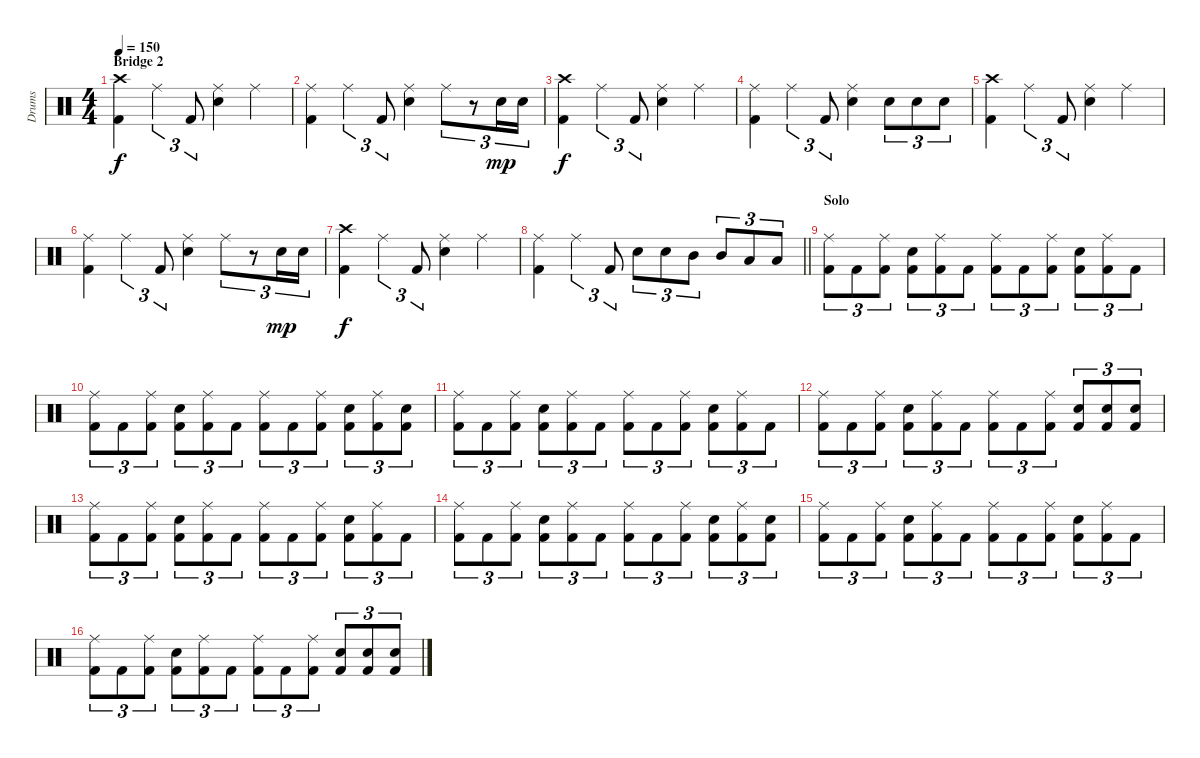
\track ("Drums" "Drums") {instrument percussion}
\staff {score}
\articulation defaults
\ts (4 4)
\section ("" "Bridge 2")
\tempo 150
\clef neutral
\ks c
("Crash high (hit)" "Kick (hit) 2").4{dy f} "Ride (middle)".4{tu (3 2)} "Kick (hit) 2".8{tu (3 2)} ("Ride (middle)" "Electric Snare (hit)").4 "Ride (middle)".4 |
("Ride (middle)" "Kick (hit) 2").4 "Ride (middle)".4{tu (3 2)} "Kick (hit) 2".8{tu (3 2)} ("Ride (middle)" "Electric Snare (hit)").4 "Ride (middle)".8{tu (3 2)} r.8{tu (3 2)} "Electric Snare (hit)".16{tu (3 2) dy mp} "Electric Snare (hit)".16{tu (3 2)} |
("Crash high (hit)" "Kick (hit) 2").4{dy f} "Ride (middle)".4{tu (3 2)} "Kick (hit) 2".8{tu (3 2)} ("Ride (middle)" "Electric Snare (hit)").4 "Ride (middle)".4 |
("Ride (middle)" "Kick (hit) 2").4 "Ride (middle)".4{tu (3 2)} "Kick (hit) 2".8{tu (3 2)} ("Ride (middle)" "Electric Snare (hit)").4 "Electric Snare (hit)".8{tu (3 2)} "Electric Snare (hit)".8{tu (3 2)} "Electric Snare (hit)".8{tu (3 2)} |
("Crash high (hit)" "Kick (hit) 2").4 "Ride (middle)".4{tu (3 2)} "Kick (hit) 2".8{tu (3 2)} ("Ride (middle)" "Electric Snare (hit)").4 "Ride (middle)".4 |
("Ride (middle)" "Kick (hit) 2").4 "Ride (middle)".4{tu (3 2)} "Kick (hit) 2".8{tu (3 2)} ("Ride (middle)" "Electric Snare (hit)").4 "Ride (middle)".8{tu (3 2)} r.8{tu (3 2)} "Electric Snare (hit)".16{tu (3 2) dy mp} "Electric Snare (hit)".16{tu (3 2)} |
("Crash high (hit)" "Kick (hit) 2").4{dy f} "Ride (middle)".4{tu (3 2)} "Kick (hit) 2".8{tu (3 2)} ("Ride (middle)" "Electric Snare (hit)").4 "Ride (middle)".4 |
\barLineRight lightlight
("Ride (middle)" "Kick (hit) 2").4 "Ride (middle)".4{tu (3 2)} "Kick (hit) 2".8{tu (3 2)} "Electric Snare (hit)".8{tu (3 2)} "Electric Snare (hit)".8{tu (3 2)} "Mid Tom (hit)".8{tu (3 2)} "Mid Tom (hit)".8{tu (3 2)} "Low Tom (hit)".8{tu (3 2)} "Low Tom (hit)".8{tu (3 2)} |
\section ("" "Solo")
("Ride (middle)" "Kick (hit) 2").8{tu (3 2)} "Kick (hit) 2".8{tu (3 2)} ("Ride (middle)" "Kick (hit) 2").8{tu (3 2)} ("Electric Snare (hit)" "Kick (hit) 2").8{tu (3 2)} ("Ride (middle)" "Kick (hit) 2").8{tu (3 2)} "Kick (hit) 2".8{tu (3 2)} ("Ride (middle)" "Kick (hit) 2").8{tu (3 2)} "Kick (hit) 2".8{tu (3 2)} ("Ride (middle)" "Kick (hit) 2").8{tu (3 2)} ("Electric Snare (hit)" "Kick (hit) 2").8{tu (3 2)} ("Ride (middle)" "Kick (hit) 2").8{tu (3 2)} "Kick (hit) 2".8{tu (3 2)} |
("Ride (middle)" "Kick (hit) 2").8{tu (3 2)} "Kick (hit) 2".8{tu (3 2)} ("Ride (middle)" "Kick (hit) 2").8{tu (3 2)} ("Electric Snare (hit)" "Kick (hit) 2").8{tu (3 2)} ("Ride (middle)" "Kick (hit) 2").8{tu (3 2)} "Kick (hit) 2".8{tu (3 2)} ("Ride (middle)" "Kick (hit) 2").8{tu (3 2)} "Kick (hit) 2".8{tu (3 2)} ("Ride (middle)" "Kick (hit) 2").8{tu (3 2)} ("Electric Snare (hit)" "Kick (hit) 2").8{tu (3 2)} ("Ride (middle)" "Kick (hit) 2").8{tu (3 2)} ("Electric Snare (hit)" "Kick (hit) 2").8{tu (3 2)} |
("Ride (middle)" "Kick (hit) 2").8{tu (3 2)} "Kick (hit) 2".8{tu (3 2)} ("Ride (middle)" "Kick (hit) 2").8{tu (3 2)} ("Electric Snare (hit)" "Kick (hit) 2").8{tu (3 2)} ("Ride (middle)" "Kick (hit) 2").8{tu (3 2)} "Kick (hit) 2".8{tu (3 2)} ("Ride (middle)" "Kick (hit) 2").8{tu (3 2)} "Kick (hit) 2".8{tu (3 2)} ("Ride (middle)" "Kick (hit) 2").8{tu (3 2)} ("Electric Snare (hit)" "Kick (hit) 2").8{tu (3 2)} ("Ride (middle)" "Kick (hit) 2").8{tu (3 2)} "Kick (hit) 2".8{tu (3 2)} |
("Ride (middle)" "Kick (hit) 2").8{tu (3 2)} "Kick (hit) 2".8{tu (3 2)} ("Ride (middle)" "Kick (hit) 2").8{tu (3 2)} ("Electric Snare (hit)" "Kick (hit) 2").8{tu (3 2)} ("Ride (middle)" "Kick (hit) 2").8{tu (3 2)} "Kick (hit) 2".8{tu (3 2)} ("Ride (middle)" "Kick (hit) 2").8{tu (3 2)} "Kick (hit) 2".8{tu (3 2)} ("Ride (middle)" "Kick (hit) 2").8{tu (3 2)} ("Electric Snare (hit)" "Kick (hit) 2").8{tu (3 2)} ("Electric Snare (hit)" "Kick (hit) 2").8{tu (3 2)} ("Electric Snare (hit)" "Kick (hit) 2").8{tu (3 2)} |
("Ride (middle)" "Kick (hit) 2").8{tu (3 2)} "Kick (hit) 2".8{tu (3 2)} ("Ride (middle)" "Kick (hit) 2").8{tu (3 2)} ("Electric Snare (hit)" "Kick (hit) 2").8{tu (3 2)} ("Ride (middle)" "Kick (hit) 2").8{tu (3 2)} "Kick (hit) 2".8{tu (3 2)} ("Ride (middle)" "Kick (hit) 2").8{tu (3 2)} "Kick (hit) 2".8{tu (3 2)} ("Ride (middle)" "Kick (hit) 2").8{tu (3 2)} ("Electric Snare (hit)" "Kick (hit) 2").8{tu (3 2)} ("Ride (middle)" "Kick (hit) 2").8{tu (3 2)} "Kick (hit) 2".8{tu (3 2)} |
("Ride (middle)" "Kick (hit) 2").8{tu (3 2)} "Kick (hit) 2".8{tu (3 2)} ("Ride (middle)" "Kick (hit) 2").8{tu (3 2)} ("Electric Snare (hit)" "Kick (hit) 2").8{tu (3 2)} ("Ride (middle)" "Kick (hit) 2").8{tu (3 2)} "Kick (hit) 2".8{tu (3 2)} ("Ride (middle)" "Kick (hit) 2").8{tu (3 2)} "Kick (hit) 2".8{tu (3 2)} ("Ride (middle)" "Kick (hit) 2").8{tu (3 2)} ("Electric Snare (hit)" "Kick (hit) 2").8{tu (3 2)} ("Ride (middle)" "Kick (hit) 2").8{tu (3 2)} ("Electric Snare (hit)" "Kick (hit) 2").8{tu (3 2)} |
("Ride (middle)" "Kick (hit) 2").8{tu (3 2)} "Kick (hit) 2".8{tu (3 2)} ("Ride (middle)" "Kick (hit) 2").8{tu (3 2)} ("Electric Snare (hit)" "Kick (hit) 2").8{tu (3 2)} ("Ride (middle)" "Kick (hit) 2").8{tu (3 2)} "Kick (hit) 2".8{tu (3 2)} ("Ride (middle)" "Kick (hit) 2").8{tu (3 2)} "Kick (hit) 2".8{tu (3 2)} ("Ride (middle)" "Kick (hit) 2").8{tu (3 2)} ("Electric Snare (hit)" "Kick (hit) 2").8{tu (3 2)} ("Ride (middle)" "Kick (hit) 2").8{tu (3 2)} "Kick (hit) 2".8{tu (3 2)} |
("Ride (middle)" "Kick (hit) 2").8{tu (3 2)} "Kick (hit) 2".8{tu (3 2)} ("Ride (middle)" "Kick (hit) 2").8{tu (3 2)} ("Electric Snare (hit)" "Kick (hit) 2").8{tu (3 2)} ("Ride (middle)" "Kick (hit) 2").8{tu (3 2)} "Kick (hit) 2".8{tu (3 2)} ("Ride (middle)" "Kick (hit) 2").8{tu (3 2)} "Kick (hit) 2".8{tu (3 2)} ("Ride (middle)" "Kick (hit) 2").8{tu (3 2)} ("Electric Snare (hit)" "Kick (hit) 2").8{tu (3 2)} ("Electric Snare (hit)" "Kick (hit) 2").8{tu (3 2)} ("Electric Snare (hit)" "Kick (hit) 2").8{tu (3 2)}
